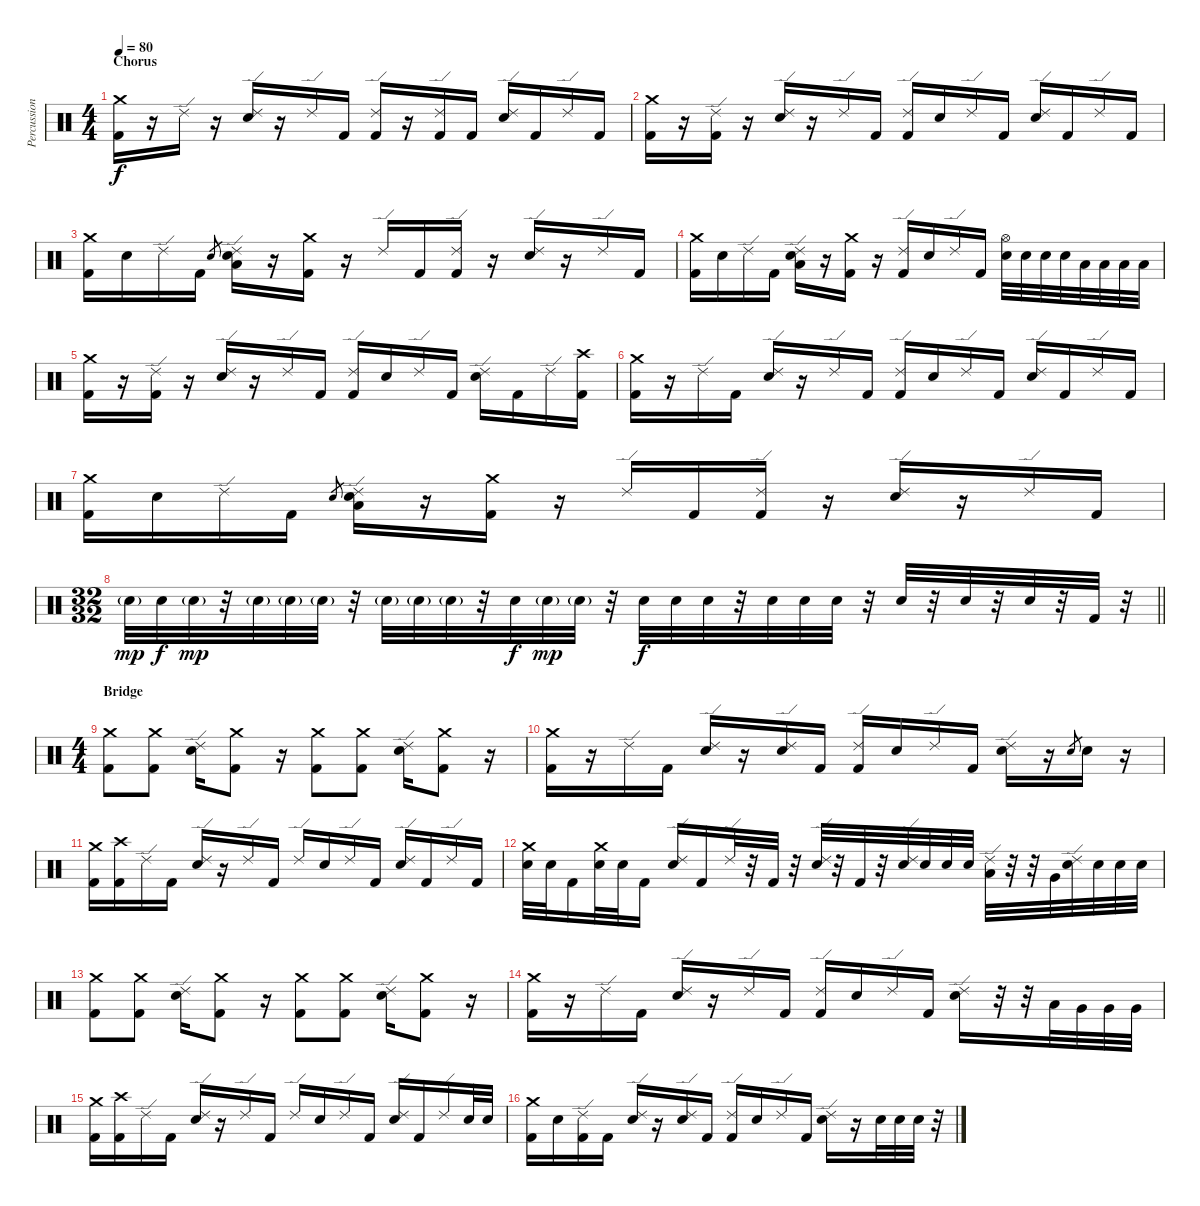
\track ("Percussion (Phillips)" "Percussion") {instrument percussion}
\staff {score}
\articulation defaults
\ts (4 4)
\section ("" "Chorus")
\tempo 80
\clef neutral
\ks c
("Crash medium (hit)" "Kick (hit) 2").16{dy f} r.16 "Ride (edge) 2".16 r.16 ("Ride (edge) 2" "Electric Snare (hit)").16 r.16 "Ride (edge) 2".16 "Kick (hit) 2".16 ("Ride (edge) 2" "Kick (hit) 2").16 r.16 ("Ride (edge) 2" "Kick (hit) 2").16 "Kick (hit) 2".16 ("Ride (edge) 2" "Electric Snare (hit)").16 "Kick (hit) 2".16 "Ride (edge) 2".16 "Kick (hit) 2".16 |
("Crash medium (hit)" "Kick (hit) 2").16 r.16 ("Ride (edge) 2" "Kick (hit) 2").16 r.16 ("Ride (edge) 2" "Electric Snare (hit)").16 r.16 "Ride (edge) 2".16 "Kick (hit) 2".16 ("Ride (edge) 2" "Kick (hit) 2").16 "Electric Snare (hit)".16 "Ride (edge) 2".16 "Kick (hit) 2".16 ("Ride (edge) 2" "Electric Snare (hit)").16 "Kick (hit) 2".16 "Ride (edge) 2".16 "Kick (hit) 2".16 |
("Crash medium (hit)" "Kick (hit) 2").16 "Electric Snare (hit)".16 "Ride (edge) 2".16 "Kick (hit) 2".16 "Electric Snare (hit)".8{gr} ("Low Tom (hit)" "Ride (edge) 2" "Electric Snare (hit)").16 r.16 ("Crash medium (hit)" "Kick (hit) 2").16 r.16 "Ride (edge) 2".16 "Kick (hit) 2".16 ("Ride (edge) 2" "Kick (hit) 2").16 r.16 ("Ride (edge) 2" "Electric Snare (hit)").16 r.16 "Ride (edge) 2".16 "Kick (hit) 2".16 |
("Crash medium (hit)" "Kick (hit) 2").16 "Electric Snare (hit)".16 "Ride (edge) 2".16 "Kick (hit) 2".16 ("Low Tom (hit)" "Ride (edge) 2" "Electric Snare (hit)").16 r.16 ("Crash medium (hit)" "Kick (hit) 2").16 r.16 ("Ride (edge) 2" "Kick (hit) 2").16 "Electric Snare (hit)".16 "Ride (edge) 2".16 "Kick (hit) 2".16 ("Hi-Hat (open)" "Electric Snare (hit)").32 "Electric Snare (hit)".32 "Electric Snare (hit)".32 "Electric Snare (hit)".32 "Low Tom (hit)".32 "Low Tom (hit)".32 "Low Tom (hit)".32 "Low Tom (hit)".32 |
("Crash medium (hit)" "Kick (hit) 2").16 r.16 ("Ride (edge) 2" "Kick (hit) 2").16 r.16 ("Ride (edge) 2" "Electric Snare (hit)").16 r.16 "Ride (edge) 2".16 "Kick (hit) 2".16 ("Ride (edge) 2" "Kick (hit) 2").16 "Electric Snare (hit)".16 "Ride (edge) 2".16 "Kick (hit) 2".16 ("Ride (edge) 2" "Electric Snare (hit)").16 "Kick (hit) 2".16 "Ride (edge) 2".16 ("Crash high (hit)" "Kick (hit) 2").16 |
("Crash medium (hit)" "Kick (hit) 2").16 r.16 "Ride (edge) 2".16 "Kick (hit) 2".16 ("Ride (edge) 2" "Electric Snare (hit)").16 r.16 "Ride (edge) 2".16 "Kick (hit) 2".16 ("Ride (edge) 2" "Kick (hit) 2").16 "Electric Snare (hit)".16 "Ride (edge) 2".16 "Kick (hit) 2".16 ("Ride (edge) 2" "Electric Snare (hit)").16 "Kick (hit) 2".16 "Ride (edge) 2".16 "Kick (hit) 2".16 |
("Crash medium (hit)" "Kick (hit) 2").16 "Electric Snare (hit)".16 "Ride (edge) 2".16 "Kick (hit) 2".16 "Electric Snare (hit)".8{gr} ("Low Tom (hit)" "Ride (edge) 2" "Electric Snare (hit)").16 r.16 ("Crash medium (hit)" "Kick (hit) 2").16 r.16 "Ride (edge) 2".16 "Kick (hit) 2".16 ("Ride (edge) 2" "Kick (hit) 2").16 r.16 ("Ride (edge) 2" "Electric Snare (hit)").16 r.16 "Ride (edge) 2".16 "Kick (hit) 2".16 |
\ts (32 32)
\barLineRight lightlight "Electric Snare (hit)"{g}.32{dy mp} "Electric Snare (hit)".32{dy f} "Electric Snare (hit)"{g}.32{dy mp}
r.32 "Electric Snare (hit)"{g}.32 "Electric Snare (hit)"{g}.32 "Electric Snare (hit)"{g}.32 r.32 "Electric Snare (hit)"{g}.32 "Electric Snare (hit)"{g}.32 "Electric Snare (hit)"{g}.32 r.32 "Electric Snare (hit)".32{dy f} "Electric Snare (hit)"{g}.32{dy mp} "Electric Snare (hit)"{g}.32 r.32 "Electric Snare (hit)".32{dy f} "Electric Snare (hit)".32 "Electric Snare (hit)".32 r.32 "Electric Snare (hit)".32 "Electric Snare (hit)".32 "Electric Snare (hit)".32 r.32 "Electric Snare (hit)".32 r.32 "Electric Snare (hit)".32 r.32 "Electric Snare (hit)".32 r.32 "Kick (hit) 2".32 r.32 |
\ts (4 4)
\section ("" "Bridge")
("Crash medium (hit)" "Kick (hit) 2").8 ("Crash medium (hit)" "Kick (hit) 2").8 ("Ride (edge) 2" "Electric Snare (hit)").16 ("Crash medium (hit)" "Kick (hit) 2").8 r.16 ("Crash medium (hit)" "Kick (hit) 2").8 ("Crash medium (hit)" "Kick (hit) 2").8 ("Ride (edge) 2" "Electric Snare (hit)").16 ("Crash medium (hit)" "Kick (hit) 2").8 r.16 |
("Crash medium (hit)" "Kick (hit) 2").16 r.16 "Ride (edge) 2".16 "Kick (hit) 2".16 ("Ride (edge) 2" "Electric Snare (hit)").16 r.16 ("Ride (edge) 2" "Electric Snare (hit)").16 "Kick (hit) 2".16 ("Ride (edge) 2" "Kick (hit) 2").16 "Electric Snare (hit)".16 "Ride (edge) 2".16 "Kick (hit) 2".16 ("Ride (edge) 2" "Electric Snare (hit)").16 r.16 "Electric Snare (hit)".8{gr} "Electric Snare (hit)".16 r.16 |
("Crash medium (hit)" "Kick (hit) 2").16 ("Crash high (hit)" "Kick (hit) 2").16 "Ride (edge) 2".16 "Kick (hit) 2".16 ("Ride (edge) 2" "Electric Snare (hit)").16 r.16 "Ride (edge) 2".16 "Kick (hit) 2".16 "Ride (edge) 2".16 "Electric Snare (hit)".16 "Ride (edge) 2".16 "Kick (hit) 2".16 ("Ride (edge) 2" "Electric Snare (hit)").16 "Kick (hit) 2".16 "Ride (edge) 2".16 "Kick (hit) 2".16 |
("Crash medium (hit)" "Electric Snare (hit)").32 "Electric Snare (hit)".32 "Kick (hit) 2".16 ("Crash medium (hit)" "Electric Snare (hit)").32 "Electric Snare (hit)".32 "Kick (hit) 2".16 ("Ride (edge) 2" "Electric Snare (hit)").16 "Kick (hit) 2".16 "Ride (edge) 2".32 r.32 "Kick (hit) 2".32 r.32 ("Ride (edge) 2" "Electric Snare (hit)").32 r.32 "Kick (hit) 2".32 r.32 ("Ride (edge) 2" "Electric Snare (hit)").32 "Electric Snare (hit)".32 "Electric Snare (hit)".32 "Electric Snare (hit)".32 ("Ride (edge) 2" "Low Tom (hit)").32 r.32 r.32 "Very Low Tom (hit)".32 ("Ride (edge) 2" "Electric Snare (hit)").32 "Electric Snare (hit)".32 "Electric Snare (hit)".32 "Electric Snare (hit)".32 |
("Crash medium (hit)" "Kick (hit) 2").8 ("Crash medium (hit)" "Kick (hit) 2").8 ("Ride (edge) 2" "Electric Snare (hit)").16 ("Crash medium (hit)" "Kick (hit) 2").8 r.16 ("Crash medium (hit)" "Kick (hit) 2").8 ("Crash medium (hit)" "Kick (hit) 2").8 ("Ride (edge) 2" "Electric Snare (hit)").16 ("Crash medium (hit)" "Kick (hit) 2").8 r.16 |
("Crash medium (hit)" "Kick (hit) 2").16 r.16 "Ride (edge) 2".16 "Kick (hit) 2".16 ("Ride (edge) 2" "Electric Snare (hit)").16 r.16 "Ride (edge) 2".16 "Kick (hit) 2".16 ("Ride (edge) 2" "Kick (hit) 2").16 "Electric Snare (hit)".16 "Ride (edge) 2".16 "Kick (hit) 2".16 ("Ride (edge) 2" "Electric Snare (hit)").16 r.32 r.32 "Low Tom (hit)".32 "Very Low Tom (hit)".32 "Very Low Tom (hit)".32 "Very Low Tom (hit)".32 |
("Crash medium (hit)" "Kick (hit) 2").16 ("Crash high (hit)" "Kick (hit) 2").16 "Ride (edge) 2".16 "Kick (hit) 2".16 ("Ride (edge) 2" "Electric Snare (hit)").16 r.16 "Ride (edge) 2".16 "Kick (hit) 2".16 "Ride (edge) 2".16 "Electric Snare (hit)".16 "Ride (edge) 2".16 "Kick (hit) 2".16 ("Ride (edge) 2" "Electric Snare (hit)").16 "Kick (hit) 2".16 "Ride (edge) 2".16 "Electric Snare (hit)".32 "Electric Snare (hit)".32 |
("Crash medium (hit)" "Kick (hit) 2").16 "Electric Snare (hit)".16 ("Ride (edge) 2" "Kick (hit) 2").16 "Kick (hit) 2".16 ("Ride (edge) 2" "Electric Snare (hit)").16 r.16 ("Ride (edge) 2" "Electric Snare (hit)").16 "Kick (hit) 2".16 ("Ride (edge) 2" "Kick (hit) 2").16 "Electric Snare (hit)".16 "Ride (edge) 2".16 "Kick (hit) 2".16 ("Ride (edge) 2" "Electric Snare (hit)").16 r.16 "Electric Snare (hit)".32 "Electric Snare (hit)".32 "Electric Snare (hit)".32 r.32
